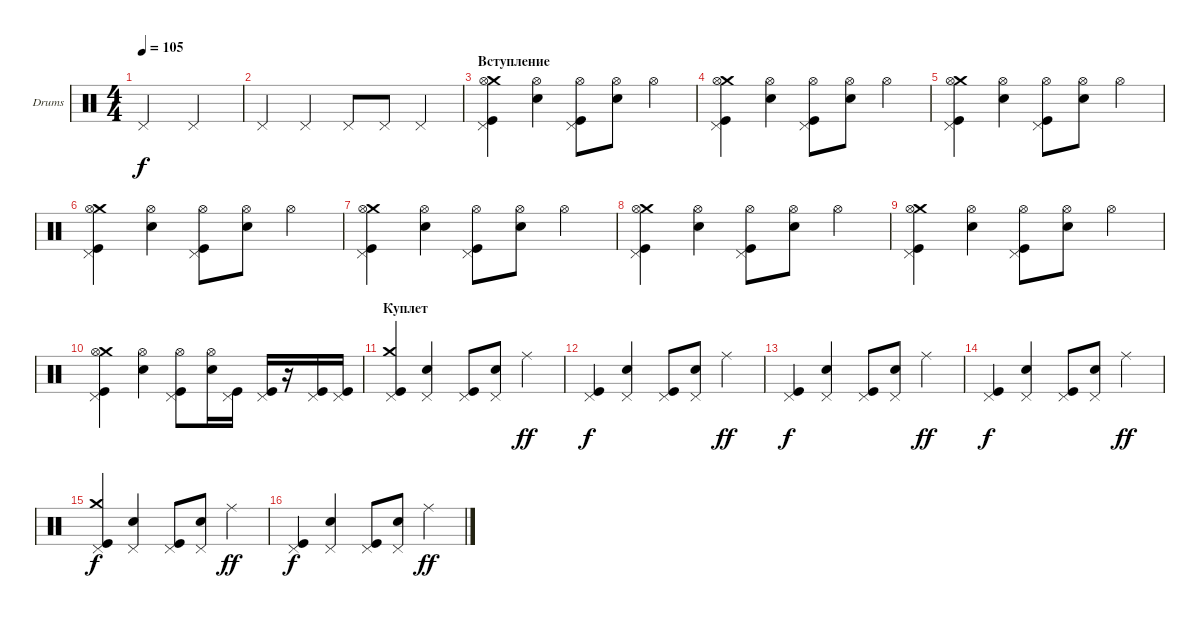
\defaultSystemsLayout 4
\bracketExtendMode groupsimilarinstruments
\firstSystemTrackNameOrientation horizontal
\otherSystemsTrackNameOrientation horizontal
\track ("Е. Кулаков" "Drums") {instrument percussion}
\staff {score}
\articulation defaults
\ts (4 4)
\tempo 105
\clef neutral
\ks c "Pedal Hi-Hat (hit)".2{dy f} "Pedal Hi-Hat (hit)".2
|
"Pedal Hi-Hat (hit)".4 "Pedal Hi-Hat (hit)".4 "Pedal Hi-Hat (hit)".8 "Pedal Hi-Hat (hit)".8 "Pedal Hi-Hat (hit)".4 |
\section ("" "Вступление")
("Crash medium (hit)" "Pedal Hi-Hat (hit)" "Kick (hit)" "Hi-Hat (open)").4 ("Snare (hit) 2" "Hi-Hat (open)").4 ("Pedal Hi-Hat (hit)" "Kick (hit)" "Hi-Hat (open)").8 ("Snare (hit) 2" "Hi-Hat (open)").8 "Hi-Hat (open)".4 |
("Crash medium (hit)" "Pedal Hi-Hat (hit)" "Kick (hit)" "Hi-Hat (open)").4 ("Snare (hit) 2" "Hi-Hat (open)").4 ("Pedal Hi-Hat (hit)" "Kick (hit)" "Hi-Hat (open)").8 ("Snare (hit) 2" "Hi-Hat (open)").8 "Hi-Hat (open)".4 |
("Crash medium (hit)" "Pedal Hi-Hat (hit)" "Kick (hit)" "Hi-Hat (open)").4 ("Snare (hit) 2" "Hi-Hat (open)").4 ("Pedal Hi-Hat (hit)" "Kick (hit)" "Hi-Hat (open)").8 ("Snare (hit) 2" "Hi-Hat (open)").8 "Hi-Hat (open)".4 |
("Crash medium (hit)" "Pedal Hi-Hat (hit)" "Kick (hit)" "Hi-Hat (open)").4 ("Snare (hit) 2" "Hi-Hat (open)").4 ("Pedal Hi-Hat (hit)" "Kick (hit)" "Hi-Hat (open)").8 ("Snare (hit) 2" "Hi-Hat (open)").8 "Hi-Hat (open)".4 |
("Crash medium (hit)" "Pedal Hi-Hat (hit)" "Kick (hit)" "Hi-Hat (open)").4 ("Snare (hit) 2" "Hi-Hat (open)").4 ("Pedal Hi-Hat (hit)" "Kick (hit)" "Hi-Hat (open)").8 ("Snare (hit) 2" "Hi-Hat (open)").8 "Hi-Hat (open)".4 |
("Crash medium (hit)" "Pedal Hi-Hat (hit)" "Kick (hit)" "Hi-Hat (open)").4 ("Snare (hit) 2" "Hi-Hat (open)").4 ("Pedal Hi-Hat (hit)" "Kick (hit)" "Hi-Hat (open)").8 ("Snare (hit) 2" "Hi-Hat (open)").8 "Hi-Hat (open)".4 |
("Crash medium (hit)" "Pedal Hi-Hat (hit)" "Kick (hit)" "Hi-Hat (open)").4 ("Snare (hit) 2" "Hi-Hat (open)").4 ("Pedal Hi-Hat (hit)" "Kick (hit)" "Hi-Hat (open)").8 ("Snare (hit) 2" "Hi-Hat (open)").8 "Hi-Hat (open)".4 |
("Crash medium (hit)" "Pedal Hi-Hat (hit)" "Kick (hit)" "Hi-Hat (open)").4 ("Snare (hit) 2" "Hi-Hat (open)").4 ("Pedal Hi-Hat (hit)" "Kick (hit)" "Hi-Hat (open)").8 ("Snare (hit) 2" "Hi-Hat (open)").16 ("Pedal Hi-Hat (hit)" "Kick (hit)").16 ("Pedal Hi-Hat (hit)" "Kick (hit)").16 r.16 ("Pedal Hi-Hat (hit)" "Kick (hit)").16 ("Pedal Hi-Hat (hit)" "Kick (hit)").16 |
\section ("" "Куплет")
("Crash medium (hit)" "Pedal Hi-Hat (hit)" "Kick (hit)").4 ("Snare (hit) 2" "Pedal Hi-Hat (hit)").4 ("Pedal Hi-Hat (hit)" "Kick (hit)").8 ("Snare (hit) 2" "Pedal Hi-Hat (hit)").8 "Ride (middle)".4{dy ff} |
("Pedal Hi-Hat (hit)" "Kick (hit)").4{dy f} ("Snare (hit) 2" "Pedal Hi-Hat (hit)").4 ("Pedal Hi-Hat (hit)" "Kick (hit)").8 ("Snare (hit) 2" "Pedal Hi-Hat (hit)").8 "Ride (middle)".4{dy ff} |
("Pedal Hi-Hat (hit)" "Kick (hit)").4{dy f} ("Snare (hit) 2" "Pedal Hi-Hat (hit)").4 ("Pedal Hi-Hat (hit)" "Kick (hit)").8 ("Snare (hit) 2" "Pedal Hi-Hat (hit)").8 "Ride (middle)".4{dy ff} |
("Pedal Hi-Hat (hit)" "Kick (hit)").4{dy f} ("Snare (hit) 2" "Pedal Hi-Hat (hit)").4 ("Pedal Hi-Hat (hit)" "Kick (hit)").8 ("Snare (hit) 2" "Pedal Hi-Hat (hit)").8 "Ride (middle)".4{dy ff} |
("Crash medium (hit)" "Pedal Hi-Hat (hit)" "Kick (hit)").4{dy f} ("Snare (hit) 2" "Pedal Hi-Hat (hit)").4 ("Pedal Hi-Hat (hit)" "Kick (hit)").8 ("Snare (hit) 2" "Pedal Hi-Hat (hit)").8 "Ride (middle)".4{dy ff} |
("Pedal Hi-Hat (hit)" "Kick (hit)").4{dy f} ("Snare (hit) 2" "Pedal Hi-Hat (hit)").4 ("Pedal Hi-Hat (hit)" "Kick (hit)").8 ("Snare (hit) 2" "Pedal Hi-Hat (hit)").8 "Ride (middle)".4{dy ff}
